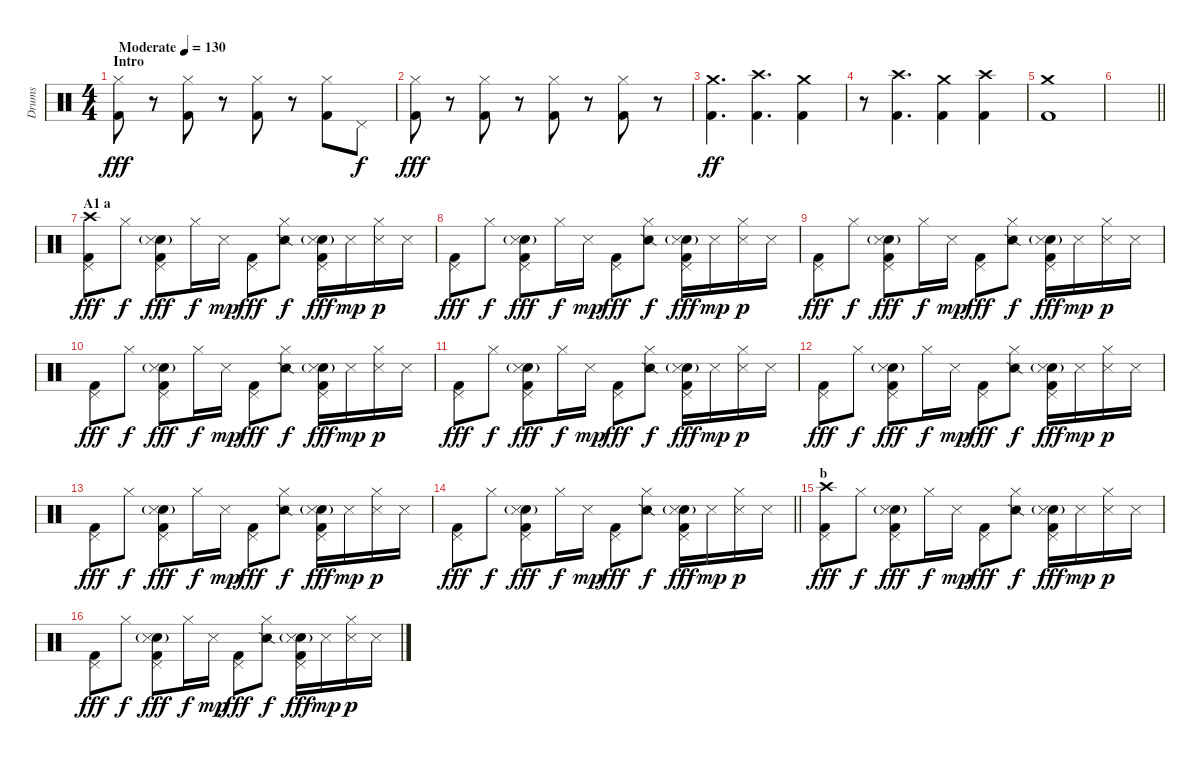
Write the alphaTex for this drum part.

\track ("Drums" "Drums") {instrument percussion}
\staff {score}
\articulation defaults
\ts (4 4)
\section ("" "Intro")
\tempo (130 "Moderate")
\clef neutral
\ks c
("Hi-Hat (closed)" "Kick (hit) 2").8{dy fff} r.8 ("Hi-Hat (closed)" "Kick (hit) 2").8 r.8 ("Hi-Hat (closed)" "Kick (hit) 2").8 r.8 ("Hi-Hat (closed)" "Kick (hit) 2").8 "Pedal Hi-Hat (hit)".8{dy f} |
("Hi-Hat (closed)" "Kick (hit) 2").8{dy fff} r.8 ("Hi-Hat (closed)" "Kick (hit) 2").8 r.8 ("Hi-Hat (closed)" "Kick (hit) 2").8 r.8 ("Hi-Hat (closed)" "Kick (hit) 2").8 r.8 |
("Crash medium (hit)" "Kick (hit) 2").4{d dy ff} ("Crash high (hit)" "Kick (hit) 2").4{d} ("Crash medium (hit)" "Kick (hit) 2").4 |
r.8 ("Crash high (hit)" "Kick (hit) 2").4{d} ("Crash medium (hit)" "Kick (hit) 2").4 ("Crash high (hit)" "Kick (hit) 2").4 |
("Crash medium (hit)" "Kick (hit) 2").1 |
\barLineRight lightlight
|
\section ("" "A1 a")
("Crash high (hit)" "Pedal Hi-Hat (hit)" "Kick (hit) 2").8{dy fff} "Hi-Hat (closed)".8{dy f} ("Pedal Hi-Hat (hit)" "Electric Snare (hit)"{g} "Snare (side stick) 3" "Kick (hit) 2").8{dy fff} "Hi-Hat (closed)".16{dy f} "Snare (side stick) 3".16{dy mp} ("Pedal Hi-Hat (hit)" "Kick (hit) 2").8{dy fff} ("Hi-Hat (closed)" "Snare (side stick) 2").8{dy f} ("Pedal Hi-Hat (hit)" "Electric Snare (hit)"{g} "Snare (side stick) 3" "Kick (hit) 2").16{dy fff} "Snare (side stick) 3".16{dy mp} ("Hi-Hat (closed)" "Snare (side stick) 3").16{dy p} "Snare (side stick) 3".16 |
("Pedal Hi-Hat (hit)" "Kick (hit) 2").8{dy fff} "Hi-Hat (closed)".8{dy f} ("Pedal Hi-Hat (hit)" "Electric Snare (hit)"{g} "Snare (side stick) 3" "Kick (hit) 2").8{dy fff} "Hi-Hat (closed)".16{dy f} "Snare (side stick) 3".16{dy mp} ("Pedal Hi-Hat (hit)" "Kick (hit) 2").8{dy fff} ("Hi-Hat (closed)" "Snare (side stick) 2").8{dy f} ("Pedal Hi-Hat (hit)" "Electric Snare (hit)"{g} "Snare (side stick) 3" "Kick (hit) 2").16{dy fff} "Snare (side stick) 3".16{dy mp} ("Hi-Hat (closed)" "Snare (side stick) 3").16{dy p} "Snare (side stick) 3".16 |
("Pedal Hi-Hat (hit)" "Kick (hit) 2").8{dy fff} "Hi-Hat (closed)".8{dy f} ("Pedal Hi-Hat (hit)" "Electric Snare (hit)"{g} "Snare (side stick) 3" "Kick (hit) 2").8{dy fff} "Hi-Hat (closed)".16{dy f} "Snare (side stick) 3".16{dy mp} ("Pedal Hi-Hat (hit)" "Kick (hit) 2").8{dy fff} ("Hi-Hat (closed)" "Snare (side stick) 2").8{dy f} ("Pedal Hi-Hat (hit)" "Electric Snare (hit)"{g} "Snare (side stick) 3" "Kick (hit) 2").16{dy fff} "Snare (side stick) 3".16{dy mp} ("Hi-Hat (closed)" "Snare (side stick) 3").16{dy p} "Snare (side stick) 3".16 |
("Pedal Hi-Hat (hit)" "Kick (hit) 2").8{dy fff} "Hi-Hat (closed)".8{dy f} ("Pedal Hi-Hat (hit)" "Electric Snare (hit)"{g} "Snare (side stick) 3" "Kick (hit) 2").8{dy fff} "Hi-Hat (closed)".16{dy f} "Snare (side stick) 3".16{dy mp} ("Pedal Hi-Hat (hit)" "Kick (hit) 2").8{dy fff} ("Hi-Hat (closed)" "Snare (side stick) 2").8{dy f} ("Pedal Hi-Hat (hit)" "Electric Snare (hit)"{g} "Snare (side stick) 3" "Kick (hit) 2").16{dy fff} "Snare (side stick) 3".16{dy mp} ("Hi-Hat (closed)" "Snare (side stick) 3").16{dy p} "Snare (side stick) 3".16 |
("Pedal Hi-Hat (hit)" "Kick (hit) 2").8{dy fff} "Hi-Hat (closed)".8{dy f} ("Pedal Hi-Hat (hit)" "Electric Snare (hit)"{g} "Snare (side stick) 3" "Kick (hit) 2").8{dy fff} "Hi-Hat (closed)".16{dy f} "Snare (side stick) 3".16{dy mp} ("Pedal Hi-Hat (hit)" "Kick (hit) 2").8{dy fff} ("Hi-Hat (closed)" "Snare (side stick) 2").8{dy f} ("Pedal Hi-Hat (hit)" "Electric Snare (hit)"{g} "Snare (side stick) 3" "Kick (hit) 2").16{dy fff} "Snare (side stick) 3".16{dy mp} ("Hi-Hat (closed)" "Snare (side stick) 3").16{dy p} "Snare (side stick) 3".16 |
("Pedal Hi-Hat (hit)" "Kick (hit) 2").8{dy fff} "Hi-Hat (closed)".8{dy f} ("Pedal Hi-Hat (hit)" "Electric Snare (hit)"{g} "Snare (side stick) 3" "Kick (hit) 2").8{dy fff} "Hi-Hat (closed)".16{dy f} "Snare (side stick) 3".16{dy mp} ("Pedal Hi-Hat (hit)" "Kick (hit) 2").8{dy fff} ("Hi-Hat (closed)" "Snare (side stick) 2").8{dy f} ("Pedal Hi-Hat (hit)" "Electric Snare (hit)"{g} "Snare (side stick) 3" "Kick (hit) 2").16{dy fff} "Snare (side stick) 3".16{dy mp} ("Hi-Hat (closed)" "Snare (side stick) 3").16{dy p} "Snare (side stick) 3".16 |
("Pedal Hi-Hat (hit)" "Kick (hit) 2").8{dy fff} "Hi-Hat (closed)".8{dy f} ("Pedal Hi-Hat (hit)" "Electric Snare (hit)"{g} "Snare (side stick) 3" "Kick (hit) 2").8{dy fff} "Hi-Hat (closed)".16{dy f} "Snare (side stick) 3".16{dy mp} ("Pedal Hi-Hat (hit)" "Kick (hit) 2").8{dy fff} ("Hi-Hat (closed)" "Snare (side stick) 2").8{dy f} ("Pedal Hi-Hat (hit)" "Electric Snare (hit)"{g} "Snare (side stick) 3" "Kick (hit) 2").16{dy fff} "Snare (side stick) 3".16{dy mp} ("Hi-Hat (closed)" "Snare (side stick) 3").16{dy p} "Snare (side stick) 3".16 |
\barLineRight lightlight
("Pedal Hi-Hat (hit)" "Kick (hit) 2").8{dy fff} "Hi-Hat (closed)".8{dy f} ("Pedal Hi-Hat (hit)" "Electric Snare (hit)"{g} "Snare (side stick) 3" "Kick (hit) 2").8{dy fff} "Hi-Hat (closed)".16{dy f} "Snare (side stick) 3".16{dy mp} ("Pedal Hi-Hat (hit)" "Kick (hit) 2").8{dy fff} ("Hi-Hat (closed)" "Snare (side stick) 2").8{dy f} ("Pedal Hi-Hat (hit)" "Electric Snare (hit)"{g} "Snare (side stick) 3" "Kick (hit) 2").16{dy fff} "Snare (side stick) 3".16{dy mp} ("Hi-Hat (closed)" "Snare (side stick) 3").16{dy p} "Snare (side stick) 3".16 |
\section ("" "b")
("Crash high (hit)" "Pedal Hi-Hat (hit)" "Kick (hit) 2").8{dy fff} "Hi-Hat (closed)".8{dy f} ("Pedal Hi-Hat (hit)" "Electric Snare (hit)"{g} "Snare (side stick) 3" "Kick (hit) 2").8{dy fff} "Hi-Hat (closed)".16{dy f} "Snare (side stick) 3".16{dy mp} ("Pedal Hi-Hat (hit)" "Kick (hit) 2").8{dy fff} ("Hi-Hat (closed)" "Snare (side stick) 2").8{dy f} ("Pedal Hi-Hat (hit)" "Electric Snare (hit)"{g} "Snare (side stick) 3" "Kick (hit) 2").16{dy fff} "Snare (side stick) 3".16{dy mp} ("Hi-Hat (closed)" "Snare (side stick) 3").16{dy p} "Snare (side stick) 3".16 |
("Pedal Hi-Hat (hit)" "Kick (hit) 2").8{dy fff} "Hi-Hat (closed)".8{dy f} ("Pedal Hi-Hat (hit)" "Electric Snare (hit)"{g} "Snare (side stick) 3" "Kick (hit) 2").8{dy fff} "Hi-Hat (closed)".16{dy f} "Snare (side stick) 3".16{dy mp} ("Pedal Hi-Hat (hit)" "Kick (hit) 2").8{dy fff} ("Hi-Hat (closed)" "Snare (side stick) 2").8{dy f} ("Pedal Hi-Hat (hit)" "Electric Snare (hit)"{g} "Snare (side stick) 3" "Kick (hit) 2").16{dy fff} "Snare (side stick) 3".16{dy mp} ("Hi-Hat (closed)" "Snare (side stick) 3").16{dy p} "Snare (side stick) 3".16
